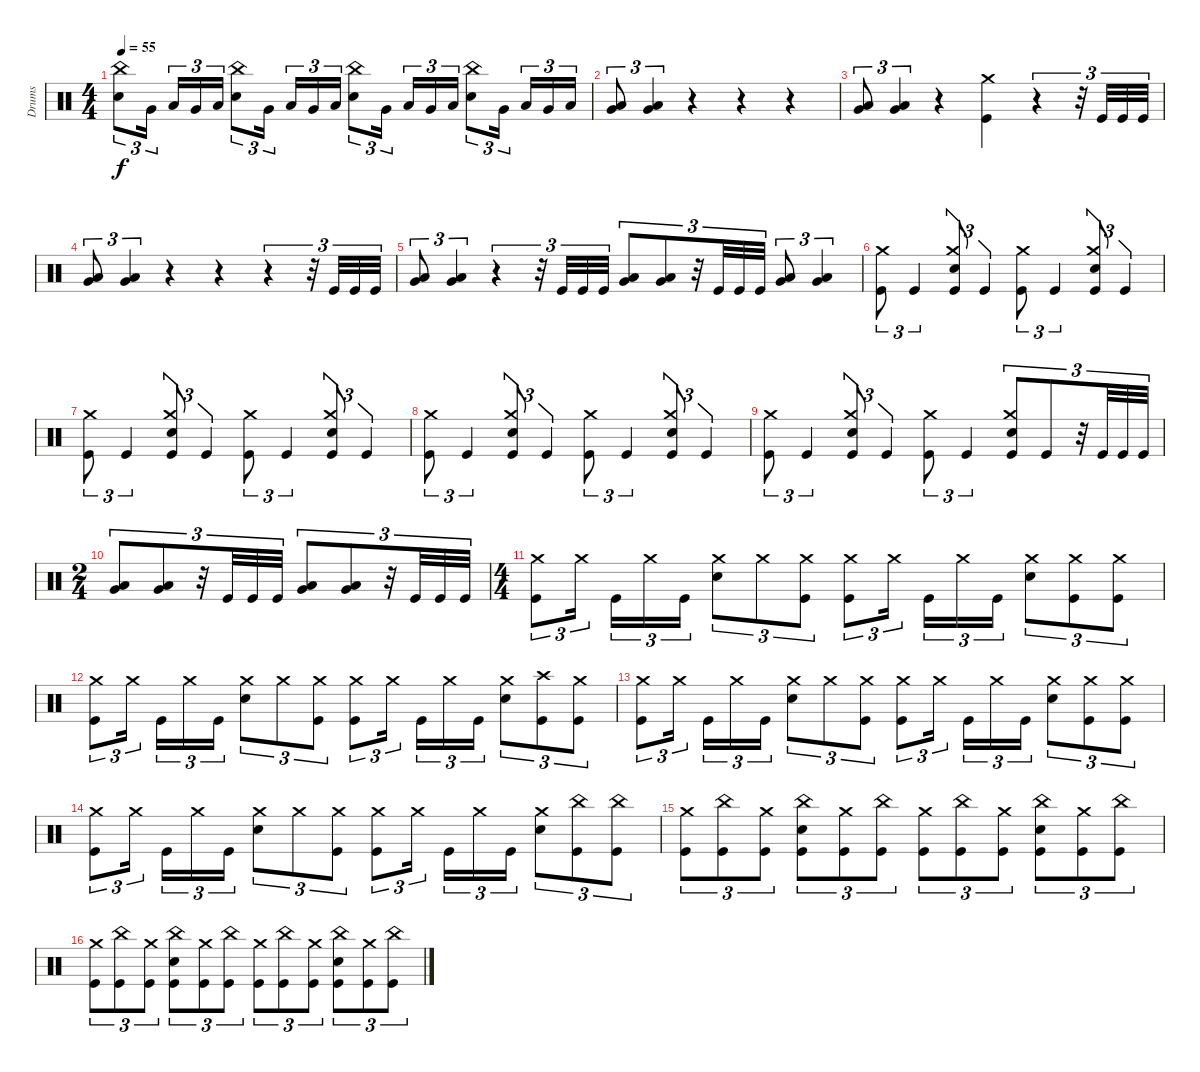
\track ("Drums" "Drums") {instrument percussion}
\staff {score}
\articulation defaults
\ts (4 4)
\tempo 55
\clef neutral
\ks c
("China (hit)" "Electric Snare (hit)").8{tu (3 2) dy f} "Very Low Tom (hit)".16{tu (3 2)} "Low Tom (hit)".16{tu (3 2)} "Very Low Tom (hit)".16{tu (3 2)} "Low Tom (hit)".16{tu (3 2)} ("China (hit)" "Electric Snare (hit)").8{tu (3 2)} "Very Low Tom (hit)".16{tu (3 2)} "Low Tom (hit)".16{tu (3 2)} "Very Low Tom (hit)".16{tu (3 2)} "Low Tom (hit)".16{tu (3 2)} ("China (hit)" "Electric Snare (hit)").8{tu (3 2)} "Very Low Tom (hit)".16{tu (3 2)} "Low Tom (hit)".16{tu (3 2)} "Very Low Tom (hit)".16{tu (3 2)} "Low Tom (hit)".16{tu (3 2)} ("China (hit)" "Electric Snare (hit)").8{tu (3 2)} "Very Low Tom (hit)".16{tu (3 2)} "Low Tom (hit)".16{tu (3 2)} "Very Low Tom (hit)".16{tu (3 2)} "Low Tom (hit)".16{tu (3 2)} |
("Low Tom (hit)" "Very Low Tom (hit)").8{tu (3 2)} ("Low Tom (hit)" "Very Low Tom (hit)").4{tu (3 2)} r.4 r.4 r.4 |
("Low Tom (hit)" "Very Low Tom (hit)").8{tu (3 2)} ("Low Tom (hit)" "Very Low Tom (hit)").4{tu (3 2)} r.4 ("Crash medium (hit)" "Kick (hit)").4 r.4{tu (3 2)} r.32{tu (3 2)} "Kick (hit)".32{tu (3 2)} "Kick (hit)".32{tu (3 2)} "Kick (hit)".32{tu (3 2)} |
("Low Tom (hit)" "Very Low Tom (hit)").8{tu (3 2)} ("Low Tom (hit)" "Very Low Tom (hit)").4{tu (3 2)} r.4 r.4 r.4{tu (3 2)} r.32{tu (3 2)} "Kick (hit)".32{tu (3 2)} "Kick (hit)".32{tu (3 2)} "Kick (hit)".32{tu (3 2)} |
("Low Tom (hit)" "Very Low Tom (hit)").8{tu (3 2)} ("Low Tom (hit)" "Very Low Tom (hit)").4{tu (3 2)} r.4{tu (3 2)} r.32{tu (3 2)} "Kick (hit)".32{tu (3 2)} "Kick (hit)".32{tu (3 2)} "Kick (hit)".32{tu (3 2)} ("Low Tom (hit)" "Very Low Tom (hit)").8{tu (3 2)} ("Low Tom (hit)" "Very Low Tom (hit)").8{tu (3 2)} r.32{tu (3 2)} "Kick (hit)".32{tu (3 2)} "Kick (hit)".32{tu (3 2)} "Kick (hit)".32{tu (3 2)} ("Low Tom (hit)" "Very Low Tom (hit)").8{tu (3 2)} ("Low Tom (hit)" "Very Low Tom (hit)").4{tu (3 2)} |
("Crash medium (hit)" "Kick (hit)").8{tu (3 2)} "Kick (hit)".4{tu (3 2)} ("Crash medium (hit)" "Electric Snare (hit)" "Kick (hit)").8{tu (3 2)} "Kick (hit)".4{tu (3 2)} ("Crash medium (hit)" "Kick (hit)").8{tu (3 2)} "Kick (hit)".4{tu (3 2)} ("Crash medium (hit)" "Electric Snare (hit)" "Kick (hit)").8{tu (3 2)} "Kick (hit)".4{tu (3 2)} |
("Crash medium (hit)" "Kick (hit)").8{tu (3 2)} "Kick (hit)".4{tu (3 2)} ("Crash medium (hit)" "Electric Snare (hit)" "Kick (hit)").8{tu (3 2)} "Kick (hit)".4{tu (3 2)} ("Crash medium (hit)" "Kick (hit)").8{tu (3 2)} "Kick (hit)".4{tu (3 2)} ("Crash medium (hit)" "Electric Snare (hit)" "Kick (hit)").8{tu (3 2)} "Kick (hit)".4{tu (3 2)} |
("Crash medium (hit)" "Kick (hit)").8{tu (3 2)} "Kick (hit)".4{tu (3 2)} ("Crash medium (hit)" "Electric Snare (hit)" "Kick (hit)").8{tu (3 2)} "Kick (hit)".4{tu (3 2)} ("Crash medium (hit)" "Kick (hit)").8{tu (3 2)} "Kick (hit)".4{tu (3 2)} ("Crash medium (hit)" "Electric Snare (hit)" "Kick (hit)").8{tu (3 2)} "Kick (hit)".4{tu (3 2)} |
("Crash medium (hit)" "Kick (hit)").8{tu (3 2)} "Kick (hit)".4{tu (3 2)} ("Crash medium (hit)" "Electric Snare (hit)" "Kick (hit)").8{tu (3 2)} "Kick (hit)".4{tu (3 2)} ("Crash medium (hit)" "Kick (hit)").8{tu (3 2)} "Kick (hit)".4{tu (3 2)} ("Crash medium (hit)" "Electric Snare (hit)" "Kick (hit)").8{tu (3 2)} "Kick (hit)".8{tu (3 2)} r.32{tu (3 2)} "Kick (hit)".32{tu (3 2)} "Kick (hit)".32{tu (3 2)} "Kick (hit)".32{tu (3 2)} |
\ts (2 4)
("Low Tom (hit)" "Very Low Tom (hit)").8{tu (3 2)} ("Low Tom (hit)" "Very Low Tom (hit)").8{tu (3 2)} r.32{tu (3 2)} "Kick (hit)".32{tu (3 2)} "Kick (hit)".32{tu (3 2)} "Kick (hit)".32{tu (3 2)} ("Low Tom (hit)" "Very Low Tom (hit)").8{tu (3 2)} ("Low Tom (hit)" "Very Low Tom (hit)").8{tu (3 2)} r.32{tu (3 2)} "Kick (hit)".32{tu (3 2)} "Kick (hit)".32{tu (3 2)} "Kick (hit)".32{tu (3 2)} |
\ts (4 4)
("Crash medium (hit)" "Kick (hit)").8{tu (3 2)} "Crash medium (hit)".16{tu (3 2)} "Kick (hit)".16{tu (3 2)} "Crash medium (hit)".16{tu (3 2)} "Kick (hit)".16{tu (3 2)} ("Crash medium (hit)" "Electric Snare (hit)").8{tu (3 2)} "Crash medium (hit)".8{tu (3 2)} ("Crash medium (hit)" "Kick (hit)").8{tu (3 2)} ("Crash medium (hit)" "Kick (hit)").8{tu (3 2)} "Crash medium (hit)".16{tu (3 2)} "Kick (hit)".16{tu (3 2)} "Crash medium (hit)".16{tu (3 2)} "Kick (hit)".16{tu (3 2)} ("Crash medium (hit)" "Electric Snare (hit)").8{tu (3 2)} ("Crash medium (hit)" "Kick (hit)").8{tu (3 2)} ("Crash medium (hit)" "Kick (hit)").8{tu (3 2)} |
("Crash medium (hit)" "Kick (hit)").8{tu (3 2)} "Crash medium (hit)".16{tu (3 2)} "Kick (hit)".16{tu (3 2)} "Crash medium (hit)".16{tu (3 2)} "Kick (hit)".16{tu (3 2)} ("Crash medium (hit)" "Electric Snare (hit)").8{tu (3 2)} "Crash medium (hit)".8{tu (3 2)} ("Crash medium (hit)" "Kick (hit)").8{tu (3 2)} ("Crash medium (hit)" "Kick (hit)").8{tu (3 2)} "Crash medium (hit)".16{tu (3 2)} "Kick (hit)".16{tu (3 2)} "Crash medium (hit)".16{tu (3 2)} "Kick (hit)".16{tu (3 2)} ("Crash medium (hit)" "Electric Snare (hit)").8{tu (3 2)} ("Crash high (hit)" "Kick (hit)").8{tu (3 2)} ("Crash medium (hit)" "Kick (hit)").8{tu (3 2)} |
("Crash medium (hit)" "Kick (hit)").8{tu (3 2)} "Crash medium (hit)".16{tu (3 2)} "Kick (hit)".16{tu (3 2)} "Crash medium (hit)".16{tu (3 2)} "Kick (hit)".16{tu (3 2)} ("Crash medium (hit)" "Electric Snare (hit)").8{tu (3 2)} "Crash medium (hit)".8{tu (3 2)} ("Crash medium (hit)" "Kick (hit)").8{tu (3 2)} ("Crash medium (hit)" "Kick (hit)").8{tu (3 2)} "Crash medium (hit)".16{tu (3 2)} "Kick (hit)".16{tu (3 2)} "Crash medium (hit)".16{tu (3 2)} "Kick (hit)".16{tu (3 2)} ("Crash medium (hit)" "Electric Snare (hit)").8{tu (3 2)} ("Crash medium (hit)" "Kick (hit)").8{tu (3 2)} ("Crash medium (hit)" "Kick (hit)").8{tu (3 2)} |
("Crash medium (hit)" "Kick (hit)").8{tu (3 2)} "Crash medium (hit)".16{tu (3 2)} "Kick (hit)".16{tu (3 2)} "Crash medium (hit)".16{tu (3 2)} "Kick (hit)".16{tu (3 2)} ("Crash medium (hit)" "Electric Snare (hit)").8{tu (3 2)} "Crash medium (hit)".8{tu (3 2)} ("Crash medium (hit)" "Kick (hit)").8{tu (3 2)} ("Crash medium (hit)" "Kick (hit)").8{tu (3 2)} "Crash medium (hit)".16{tu (3 2)} "Kick (hit)".16{tu (3 2)} "Crash medium (hit)".16{tu (3 2)} "Kick (hit)".16{tu (3 2)} ("Crash medium (hit)" "Electric Snare (hit)").8{tu (3 2)} ("China (hit)" "Kick (hit)").8{tu (3 2)} ("China (hit)" "Kick (hit)").8{tu (3 2)} |
("Crash medium (hit)" "Kick (hit)").8{tu (3 2)} ("China (hit)" "Kick (hit)").8{tu (3 2)} ("Crash medium (hit)" "Kick (hit)").8{tu (3 2)} ("China (hit)" "Electric Snare (hit)" "Kick (hit)").8{tu (3 2)} ("Crash medium (hit)" "Kick (hit)").8{tu (3 2)} ("China (hit)" "Kick (hit)").8{tu (3 2)} ("Crash medium (hit)" "Kick (hit)").8{tu (3 2)} ("China (hit)" "Kick (hit)").8{tu (3 2)} ("Crash medium (hit)" "Kick (hit)").8{tu (3 2)} ("China (hit)" "Electric Snare (hit)" "Kick (hit)").8{tu (3 2)} ("Crash medium (hit)" "Kick (hit)").8{tu (3 2)} ("China (hit)" "Kick (hit)").8{tu (3 2)} |
("Crash medium (hit)" "Kick (hit)").8{tu (3 2)} ("China (hit)" "Kick (hit)").8{tu (3 2)} ("Crash medium (hit)" "Kick (hit)").8{tu (3 2)} ("China (hit)" "Electric Snare (hit)" "Kick (hit)").8{tu (3 2)} ("Crash medium (hit)" "Kick (hit)").8{tu (3 2)} ("China (hit)" "Kick (hit)").8{tu (3 2)} ("Crash medium (hit)" "Kick (hit)").8{tu (3 2)} ("China (hit)" "Kick (hit)").8{tu (3 2)} ("Crash medium (hit)" "Kick (hit)").8{tu (3 2)} ("China (hit)" "Electric Snare (hit)" "Kick (hit)").8{tu (3 2)} ("Crash medium (hit)" "Kick (hit)").8{tu (3 2)} ("China (hit)" "Kick (hit)").8{tu (3 2)}
